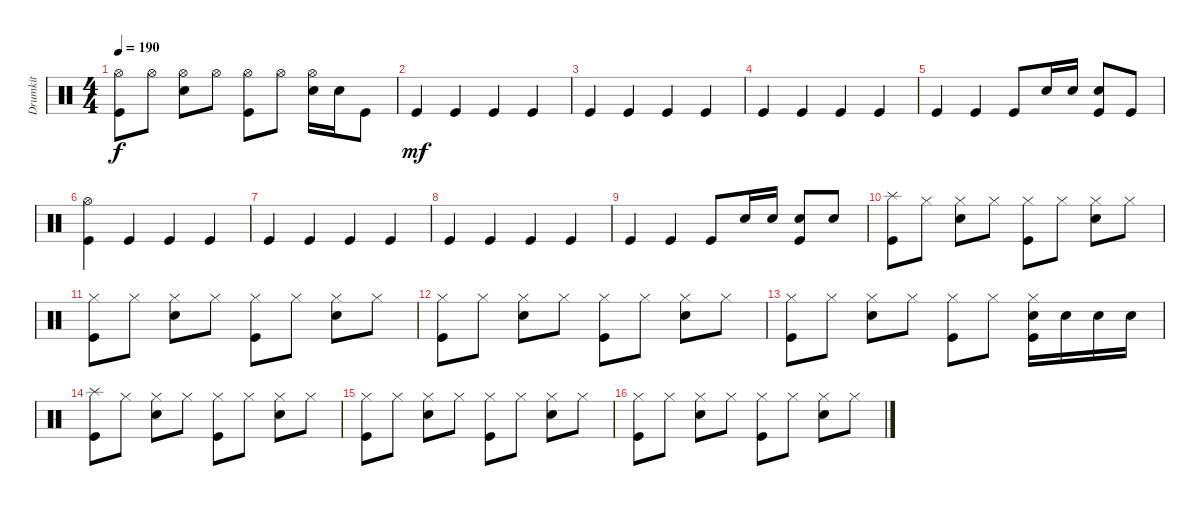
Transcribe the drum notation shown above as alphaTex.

\track ("Drumkit" "Drumkit") {instrument percussion}
\staff {score}
\articulation defaults
\ts (4 4)
\tempo 190
\clef neutral
\ks c
("Kick (hit)" "Hi-Hat (open)").8{dy f} "Hi-Hat (open)".8 ("Snare (hit) 2" "Hi-Hat (open)").8 "Hi-Hat (open)".8 ("Hi-Hat (open)" "Kick (hit)").8 "Hi-Hat (open)".8 ("Hi-Hat (open)" "Snare (hit) 2").16 "Snare (hit) 2".16 "Kick (hit)".8 |
"Kick (hit)".4{dy mf} "Kick (hit)".4 "Kick (hit)".4 "Kick (hit)".4 |
"Kick (hit)".4 "Kick (hit)".4 "Kick (hit)".4 "Kick (hit)".4 |
"Kick (hit)".4 "Kick (hit)".4 "Kick (hit)".4 "Kick (hit)".4 |
"Kick (hit)".4 "Kick (hit)".4 "Kick (hit)".8 "Snare (hit) 2".16 "Snare (hit) 2".16 ("Snare (hit) 2" "Kick (hit)").8 "Kick (hit)".8 |
("Kick (hit)" "Hi-Hat (open)").4 "Kick (hit)".4 "Kick (hit)".4 "Kick (hit)".4 |
"Kick (hit)".4 "Kick (hit)".4 "Kick (hit)".4 "Kick (hit)".4 |
"Kick (hit)".4 "Kick (hit)".4 "Kick (hit)".4 "Kick (hit)".4 |
"Kick (hit)".4 "Kick (hit)".4 "Kick (hit)".8 "Snare (hit) 2".16 "Snare (hit) 2".16 ("Snare (hit) 2" "Kick (hit)").8 "Snare (hit) 2".8 |
("Kick (hit)" "Splash (hit)").8 "Hi-Hat (closed)".8 ("Snare (hit) 2" "Hi-Hat (closed)").8 "Hi-Hat (closed)".8 ("Hi-Hat (closed)" "Kick (hit)").8 "Hi-Hat (closed)".8 ("Hi-Hat (closed)" "Snare (hit) 2").8 "Hi-Hat (closed)".8 |
("Kick (hit)" "Hi-Hat (closed)").8 "Hi-Hat (closed)".8 ("Snare (hit) 2" "Hi-Hat (closed)").8 "Hi-Hat (closed)".8 ("Hi-Hat (closed)" "Kick (hit)").8 "Hi-Hat (closed)".8 ("Hi-Hat (closed)" "Snare (hit) 2").8 "Hi-Hat (closed)".8 |
("Kick (hit)" "Hi-Hat (closed)").8 "Hi-Hat (closed)".8 ("Snare (hit) 2" "Hi-Hat (closed)").8 "Hi-Hat (closed)".8 ("Hi-Hat (closed)" "Kick (hit)").8 "Hi-Hat (closed)".8 ("Hi-Hat (closed)" "Snare (hit) 2").8 "Hi-Hat (closed)".8 |
("Kick (hit)" "Hi-Hat (closed)").8 "Hi-Hat (closed)".8 ("Snare (hit) 2" "Hi-Hat (closed)").8 "Hi-Hat (closed)".8 ("Hi-Hat (closed)" "Kick (hit)").8 "Hi-Hat (closed)".8 ("Hi-Hat (closed)" "Snare (hit) 2" "Kick (hit)").16 "Snare (hit) 2".16 "Snare (hit) 2".16 "Snare (hit) 2".16 |
("Kick (hit)" "Splash (hit)").8 "Hi-Hat (closed)".8 ("Snare (hit) 2" "Hi-Hat (closed)").8 "Hi-Hat (closed)".8 ("Hi-Hat (closed)" "Kick (hit)").8 "Hi-Hat (closed)".8 ("Hi-Hat (closed)" "Snare (hit) 2").8 "Hi-Hat (closed)".8 |
("Kick (hit)" "Hi-Hat (closed)").8 "Hi-Hat (closed)".8 ("Snare (hit) 2" "Hi-Hat (closed)").8 "Hi-Hat (closed)".8 ("Hi-Hat (closed)" "Kick (hit)").8 "Hi-Hat (closed)".8 ("Hi-Hat (closed)" "Snare (hit) 2").8 "Hi-Hat (closed)".8 |
("Kick (hit)" "Hi-Hat (closed)").8 "Hi-Hat (closed)".8 ("Snare (hit) 2" "Hi-Hat (closed)").8 "Hi-Hat (closed)".8 ("Hi-Hat (closed)" "Kick (hit)").8 "Hi-Hat (closed)".8 ("Hi-Hat (closed)" "Snare (hit) 2").8 "Hi-Hat (closed)".8
